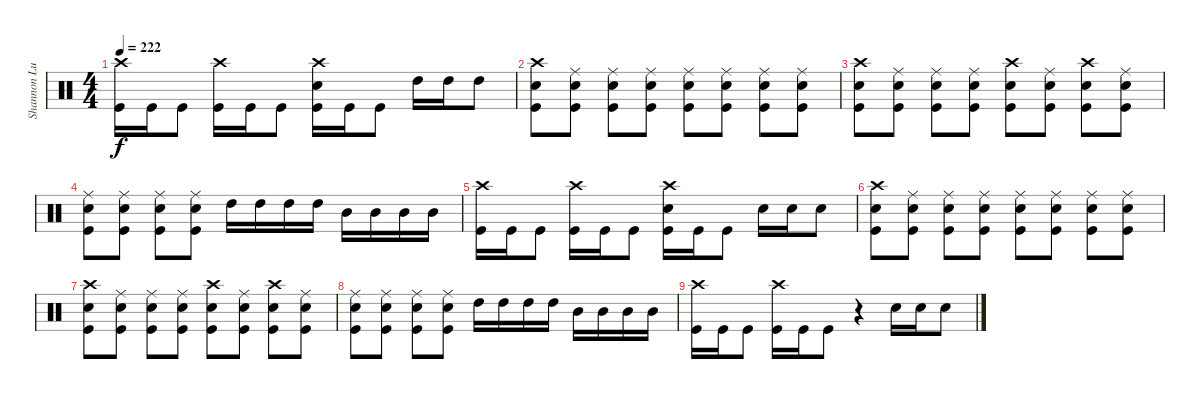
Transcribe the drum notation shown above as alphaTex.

\track ("Shannon Lucas" "Shannon Lu") {instrument percussion}
\staff {score}
\articulation defaults
\ts (4 4)
\tempo 222
\clef neutral
\ks c
("Crash high (hit)" "Kick (hit)").16{dy f} "Kick (hit)".16 "Kick (hit)".8 ("Crash high (hit)" "Kick (hit)").16 "Kick (hit)".16 "Kick (hit)".8 ("Crash high (hit)" "Snare (hit) 2" "Kick (hit)").16 "Kick (hit)".16 "Kick (hit)".8 "High Tom (hit)".16 "High Tom (hit)".16 "High Tom (hit)".8 |
("Crash high (hit)" "Snare (hit) 2" "Kick (hit)").8 ("Ride (middle)" "Snare (hit) 2" "Kick (hit)").8 ("Ride (middle)" "Snare (hit) 2" "Kick (hit)").8 ("Ride (middle)" "Snare (hit) 2" "Kick (hit)").8 ("Ride (middle)" "Snare (hit) 2" "Kick (hit)").8 ("Ride (middle)" "Snare (hit) 2" "Kick (hit)").8 ("Ride (middle)" "Snare (hit) 2" "Kick (hit)").8 ("Ride (middle)" "Snare (hit) 2" "Kick (hit)").8 |
("Crash high (hit)" "Snare (hit) 2" "Kick (hit)").8 ("Ride (middle)" "Snare (hit) 2" "Kick (hit)").8 ("Ride (middle)" "Snare (hit) 2" "Kick (hit)").8 ("Ride (middle)" "Snare (hit) 2" "Kick (hit)").8 ("Crash high (hit)" "Snare (hit) 2" "Kick (hit)").8 ("Ride (middle)" "Snare (hit) 2" "Kick (hit)").8 ("Crash high (hit)" "Snare (hit) 2" "Kick (hit)").8 ("Ride (middle)" "Snare (hit) 2" "Kick (hit)").8 |
("Ride (middle)" "Snare (hit) 2" "Kick (hit)").8 ("Ride (middle)" "Snare (hit) 2" "Kick (hit)").8 ("Ride (middle)" "Snare (hit) 2" "Kick (hit)").8 ("Ride (middle)" "Snare (hit) 2" "Kick (hit)").8 "High Tom (hit)".16 "High Tom (hit)".16 "High Tom (hit)".16 "High Tom (hit)".16 "Mid Tom (hit)".16 "Mid Tom (hit)".16 "Mid Tom (hit)".16 "Mid Tom (hit)".16 |
("Crash high (hit)" "Kick (hit)").16 "Kick (hit)".16 "Kick (hit)".8 ("Crash high (hit)" "Kick (hit)").16 "Kick (hit)".16 "Kick (hit)".8 ("Crash high (hit)" "Snare (hit) 2" "Kick (hit)").16 "Kick (hit)".16 "Kick (hit)".8 "Snare (hit) 2".16 "Snare (hit) 2".16 "Snare (hit) 2".8 |
("Crash high (hit)" "Snare (hit) 2" "Kick (hit)").8 ("Ride (middle)" "Snare (hit) 2" "Kick (hit)").8 ("Ride (middle)" "Snare (hit) 2" "Kick (hit)").8 ("Ride (middle)" "Snare (hit) 2" "Kick (hit)").8 ("Ride (middle)" "Snare (hit) 2" "Kick (hit)").8 ("Ride (middle)" "Snare (hit) 2" "Kick (hit)").8 ("Ride (middle)" "Snare (hit) 2" "Kick (hit)").8 ("Ride (middle)" "Snare (hit) 2" "Kick (hit)").8 |
("Crash high (hit)" "Snare (hit) 2" "Kick (hit)").8 ("Ride (middle)" "Snare (hit) 2" "Kick (hit)").8 ("Ride (middle)" "Snare (hit) 2" "Kick (hit)").8 ("Ride (middle)" "Snare (hit) 2" "Kick (hit)").8 ("Crash high (hit)" "Snare (hit) 2" "Kick (hit)").8 ("Ride (middle)" "Snare (hit) 2" "Kick (hit)").8 ("Crash high (hit)" "Snare (hit) 2" "Kick (hit)").8 ("Ride (middle)" "Snare (hit) 2" "Kick (hit)").8 |
("Ride (middle)" "Snare (hit) 2" "Kick (hit)").8 ("Ride (middle)" "Snare (hit) 2" "Kick (hit)").8 ("Ride (middle)" "Snare (hit) 2" "Kick (hit)").8 ("Ride (middle)" "Snare (hit) 2" "Kick (hit)").8 "High Tom (hit)".16 "High Tom (hit)".16 "High Tom (hit)".16 "High Tom (hit)".16 "Mid Tom (hit)".16 "Mid Tom (hit)".16 "Mid Tom (hit)".16 "Mid Tom (hit)".16 |
("Crash high (hit)" "Kick (hit)").16 "Kick (hit)".16 "Kick (hit)".8 ("Crash high (hit)" "Kick (hit)").16 "Kick (hit)".16 "Kick (hit)".8 r.4 "Snare (hit) 2".16 "Snare (hit) 2".16 "Snare (hit) 2".8
